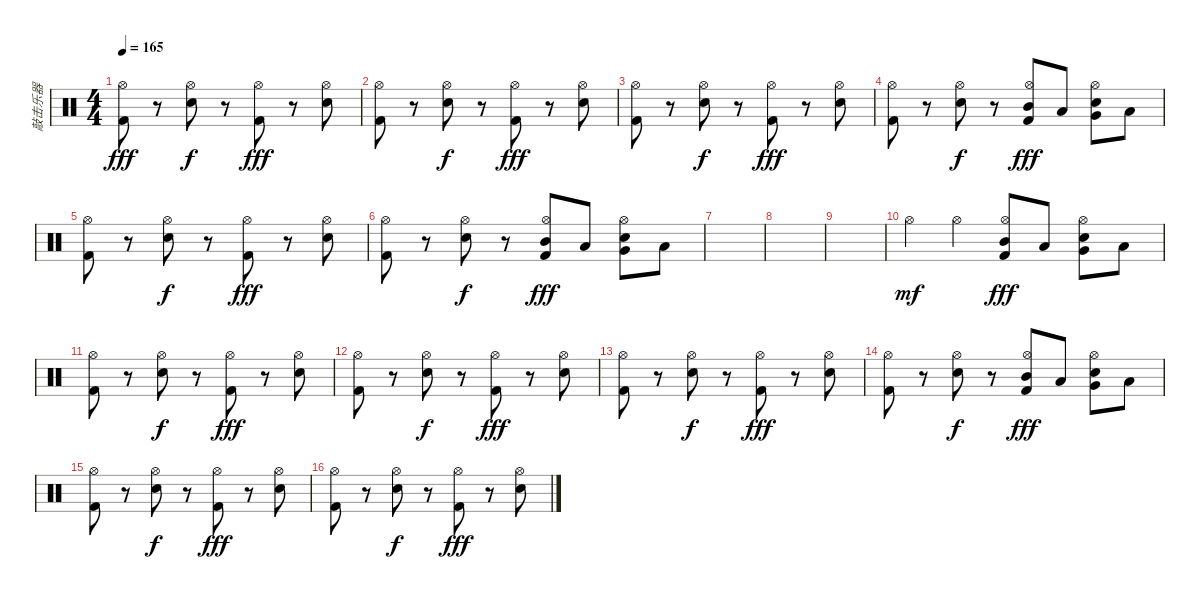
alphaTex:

\track ("敲击乐器" "敲击乐器") {instrument percussion}
\staff {score}
\articulation defaults
\ts (4 4)
\tempo 165
\clef neutral
\ks c
("Kick (hit) 2" "Hi-Hat (open)").8{dy fff} r.8 ("Snare (hit) 2" "Hi-Hat (open)").8{dy f} r.8 ("Kick (hit) 2" "Hi-Hat (open)").8{dy fff} r.8 ("Snare (hit) 2" "Hi-Hat (open)").8 |
("Kick (hit) 2" "Hi-Hat (open)").8 r.8 ("Snare (hit) 2" "Hi-Hat (open)").8{dy f} r.8 ("Kick (hit) 2" "Hi-Hat (open)").8{dy fff} r.8 ("Snare (hit) 2" "Hi-Hat (open)").8 |
("Kick (hit) 2" "Hi-Hat (open)").8 r.8 ("Snare (hit) 2" "Hi-Hat (open)").8{dy f} r.8 ("Kick (hit) 2" "Hi-Hat (open)").8{dy fff} r.8 ("Snare (hit) 2" "Hi-Hat (open)").8 |
("Kick (hit) 2" "Hi-Hat (open)").8 r.8 ("Snare (hit) 2" "Hi-Hat (open)").8{dy f} r.8 ("Kick (hit) 2" "Hi-Hat (open)" "Mid Tom (hit)").8{dy fff} "Low Tom (hit)".8 ("Snare (hit) 2" "Hi-Hat (open)" "Very Low Tom (hit)").8 "Low Floor Tom (hit)".8 |
("Kick (hit) 2" "Hi-Hat (open)").8 r.8 ("Snare (hit) 2" "Hi-Hat (open)").8{dy f} r.8 ("Kick (hit) 2" "Hi-Hat (open)").8{dy fff} r.8 ("Snare (hit) 2" "Hi-Hat (open)").8 |
("Kick (hit) 2" "Hi-Hat (open)").8 r.8 ("Snare (hit) 2" "Hi-Hat (open)").8{dy f} r.8 ("Kick (hit) 2" "Hi-Hat (open)" "Mid Tom (hit)").8{dy fff} "Low Tom (hit)".8 ("Snare (hit) 2" "Hi-Hat (open)" "Very Low Tom (hit)").8 "Low Floor Tom (hit)".8 |
|
|
|
"Hi-Hat (open)".4{dy mf} "Hi-Hat (open)".4 ("Kick (hit) 2" "Hi-Hat (open)" "Mid Tom (hit)").8{dy fff} "Low Tom (hit)".8 ("Snare (hit) 2" "Hi-Hat (open)" "Very Low Tom (hit)").8 "Low Floor Tom (hit)".8 |
("Kick (hit) 2" "Hi-Hat (open)").8 r.8 ("Snare (hit) 2" "Hi-Hat (open)").8{dy f} r.8 ("Kick (hit) 2" "Hi-Hat (open)").8{dy fff} r.8 ("Snare (hit) 2" "Hi-Hat (open)").8 |
("Kick (hit) 2" "Hi-Hat (open)").8 r.8 ("Snare (hit) 2" "Hi-Hat (open)").8{dy f} r.8 ("Kick (hit) 2" "Hi-Hat (open)").8{dy fff} r.8 ("Snare (hit) 2" "Hi-Hat (open)").8 |
("Kick (hit) 2" "Hi-Hat (open)").8 r.8 ("Snare (hit) 2" "Hi-Hat (open)").8{dy f} r.8 ("Kick (hit) 2" "Hi-Hat (open)").8{dy fff} r.8 ("Snare (hit) 2" "Hi-Hat (open)").8 |
("Kick (hit) 2" "Hi-Hat (open)").8 r.8 ("Snare (hit) 2" "Hi-Hat (open)").8{dy f} r.8 ("Kick (hit) 2" "Hi-Hat (open)" "Mid Tom (hit)").8{dy fff} "Low Tom (hit)".8 ("Snare (hit) 2" "Hi-Hat (open)" "Very Low Tom (hit)").8 "Low Floor Tom (hit)".8 |
("Kick (hit) 2" "Hi-Hat (open)").8 r.8 ("Snare (hit) 2" "Hi-Hat (open)").8{dy f} r.8 ("Kick (hit) 2" "Hi-Hat (open)").8{dy fff} r.8 ("Snare (hit) 2" "Hi-Hat (open)").8 |
("Kick (hit) 2" "Hi-Hat (open)").8 r.8 ("Snare (hit) 2" "Hi-Hat (open)").8{dy f} r.8 ("Kick (hit) 2" "Hi-Hat (open)").8{dy fff} r.8 ("Snare (hit) 2" "Hi-Hat (open)").8
